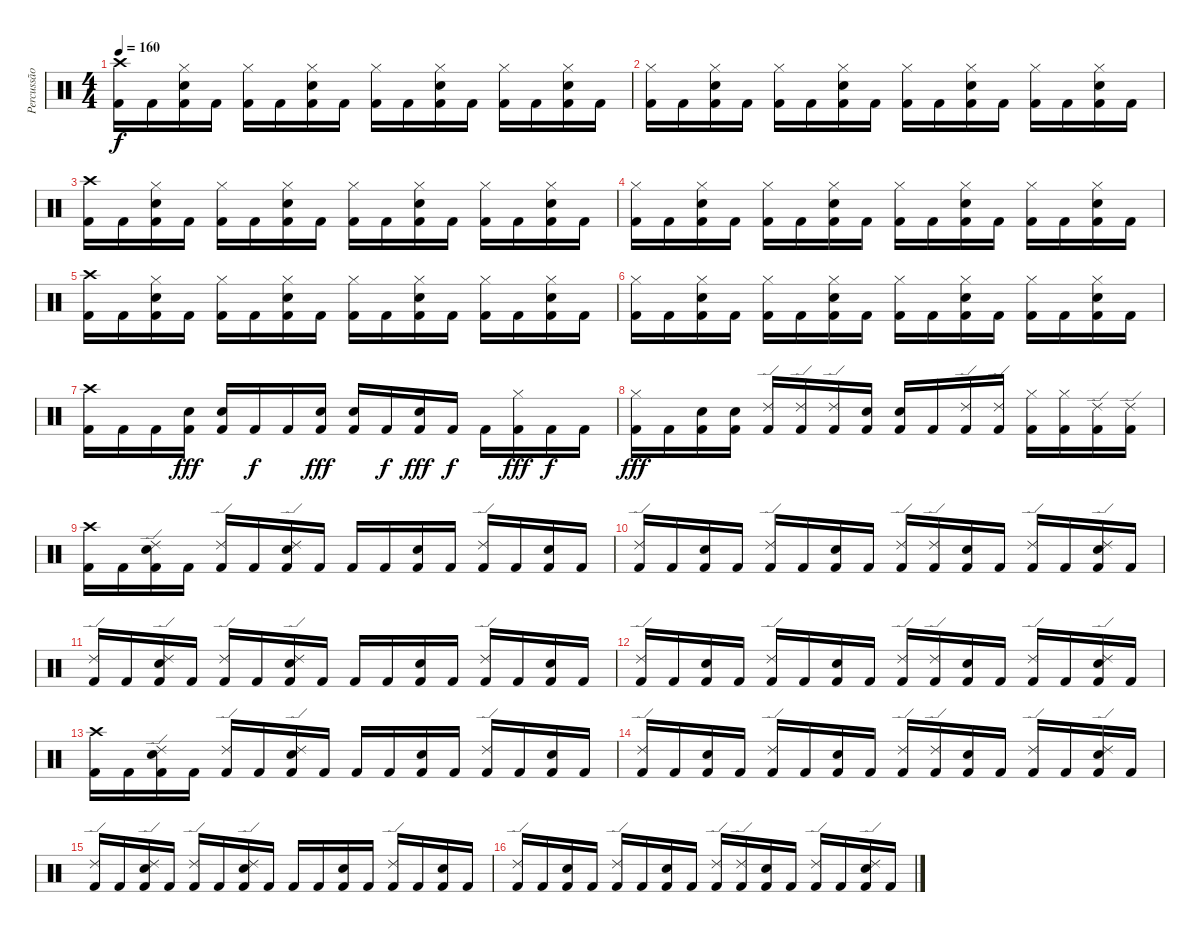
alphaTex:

\track ("Percussão" "Percussão") {instrument percussion}
\staff {score}
\articulation defaults
\ts (4 4)
\tempo 160
\clef neutral
\ks c
("Crash high (hit)" "Kick (hit) 2").16{dy f} "Kick (hit) 2".16 ("Hi-Hat (closed)" "Electric Snare (hit)" "Kick (hit) 2").16 "Kick (hit) 2".16 ("Hi-Hat (closed)" "Kick (hit) 2").16 "Kick (hit) 2".16 ("Hi-Hat (closed)" "Electric Snare (hit)" "Kick (hit) 2").16 "Kick (hit) 2".16 ("Hi-Hat (closed)" "Kick (hit) 2").16 "Kick (hit) 2".16 ("Hi-Hat (closed)" "Electric Snare (hit)" "Kick (hit) 2").16 "Kick (hit) 2".16 ("Hi-Hat (closed)" "Kick (hit) 2").16 "Kick (hit) 2".16 ("Hi-Hat (closed)" "Electric Snare (hit)" "Kick (hit) 2").16 "Kick (hit) 2".16 |
("Hi-Hat (closed)" "Kick (hit) 2").16 "Kick (hit) 2".16 ("Hi-Hat (closed)" "Electric Snare (hit)" "Kick (hit) 2").16 "Kick (hit) 2".16 ("Hi-Hat (closed)" "Kick (hit) 2").16 "Kick (hit) 2".16 ("Hi-Hat (closed)" "Electric Snare (hit)" "Kick (hit) 2").16 "Kick (hit) 2".16 ("Hi-Hat (closed)" "Kick (hit) 2").16 "Kick (hit) 2".16 ("Hi-Hat (closed)" "Electric Snare (hit)" "Kick (hit) 2").16 "Kick (hit) 2".16 ("Hi-Hat (closed)" "Kick (hit) 2").16 "Kick (hit) 2".16 ("Hi-Hat (closed)" "Electric Snare (hit)" "Kick (hit) 2").16 "Kick (hit) 2".16 |
("Crash high (hit)" "Kick (hit) 2").16 "Kick (hit) 2".16 ("Hi-Hat (closed)" "Electric Snare (hit)" "Kick (hit) 2").16 "Kick (hit) 2".16 ("Hi-Hat (closed)" "Kick (hit) 2").16 "Kick (hit) 2".16 ("Hi-Hat (closed)" "Electric Snare (hit)" "Kick (hit) 2").16 "Kick (hit) 2".16 ("Hi-Hat (closed)" "Kick (hit) 2").16 "Kick (hit) 2".16 ("Hi-Hat (closed)" "Electric Snare (hit)" "Kick (hit) 2").16 "Kick (hit) 2".16 ("Hi-Hat (closed)" "Kick (hit) 2").16 "Kick (hit) 2".16 ("Hi-Hat (closed)" "Electric Snare (hit)" "Kick (hit) 2").16 "Kick (hit) 2".16 |
("Hi-Hat (closed)" "Kick (hit) 2").16 "Kick (hit) 2".16 ("Hi-Hat (closed)" "Electric Snare (hit)" "Kick (hit) 2").16 "Kick (hit) 2".16 ("Hi-Hat (closed)" "Kick (hit) 2").16 "Kick (hit) 2".16 ("Hi-Hat (closed)" "Electric Snare (hit)" "Kick (hit) 2").16 "Kick (hit) 2".16 ("Hi-Hat (closed)" "Kick (hit) 2").16 "Kick (hit) 2".16 ("Hi-Hat (closed)" "Electric Snare (hit)" "Kick (hit) 2").16 "Kick (hit) 2".16 ("Hi-Hat (closed)" "Kick (hit) 2").16 "Kick (hit) 2".16 ("Hi-Hat (closed)" "Electric Snare (hit)" "Kick (hit) 2").16 "Kick (hit) 2".16 |
("Crash high (hit)" "Kick (hit) 2").16 "Kick (hit) 2".16 ("Hi-Hat (closed)" "Electric Snare (hit)" "Kick (hit) 2").16 "Kick (hit) 2".16 ("Hi-Hat (closed)" "Kick (hit) 2").16 "Kick (hit) 2".16 ("Hi-Hat (closed)" "Electric Snare (hit)" "Kick (hit) 2").16 "Kick (hit) 2".16 ("Hi-Hat (closed)" "Kick (hit) 2").16 "Kick (hit) 2".16 ("Hi-Hat (closed)" "Electric Snare (hit)" "Kick (hit) 2").16 "Kick (hit) 2".16 ("Hi-Hat (closed)" "Kick (hit) 2").16 "Kick (hit) 2".16 ("Hi-Hat (closed)" "Electric Snare (hit)" "Kick (hit) 2").16 "Kick (hit) 2".16 |
("Hi-Hat (closed)" "Kick (hit) 2").16 "Kick (hit) 2".16 ("Hi-Hat (closed)" "Electric Snare (hit)" "Kick (hit) 2").16 "Kick (hit) 2".16 ("Hi-Hat (closed)" "Kick (hit) 2").16 "Kick (hit) 2".16 ("Hi-Hat (closed)" "Electric Snare (hit)" "Kick (hit) 2").16 "Kick (hit) 2".16 ("Hi-Hat (closed)" "Kick (hit) 2").16 "Kick (hit) 2".16 ("Hi-Hat (closed)" "Electric Snare (hit)" "Kick (hit) 2").16 "Kick (hit) 2".16 ("Hi-Hat (closed)" "Kick (hit) 2").16 "Kick (hit) 2".16 ("Hi-Hat (closed)" "Electric Snare (hit)" "Kick (hit) 2").16 "Kick (hit) 2".16 |
("Crash high (hit)" "Kick (hit) 2").16 "Kick (hit) 2".16 "Kick (hit) 2".16 ("Electric Snare (hit)" "Kick (hit) 2").16{dy fff} ("Electric Snare (hit)" "Kick (hit) 2").16 "Kick (hit) 2".16{dy f} "Kick (hit) 2".16 ("Electric Snare (hit)" "Kick (hit) 2").16{dy fff} ("Electric Snare (hit)" "Kick (hit) 2").16 "Kick (hit) 2".16{dy f} ("Electric Snare (hit)" "Kick (hit) 2").16{dy fff} "Kick (hit) 2".16{dy f} "Kick (hit) 2".16 ("Hi-Hat (closed)" "Kick (hit) 2").16{dy fff} "Kick (hit) 2".16{dy f} "Kick (hit) 2".16 |
("Hi-Hat (closed)" "Kick (hit) 2").16{dy fff} "Kick (hit) 2".16 ("Electric Snare (hit)" "Kick (hit) 2").16 ("Electric Snare (hit)" "Kick (hit) 2").16 ("Ride (edge) 2" "Kick (hit) 2").16 ("Ride (edge) 2" "Kick (hit) 2").16 ("Ride (edge) 2" "Kick (hit) 2").16 ("Electric Snare (hit)" "Kick (hit) 2").16 ("Electric Snare (hit)" "Kick (hit) 2").16 "Kick (hit) 2".16 ("Ride (edge) 2" "Kick (hit) 2").16 ("Ride (edge) 2" "Kick (hit) 2").16 ("Hi-Hat (closed)" "Kick (hit) 2").16 ("Hi-Hat (closed)" "Kick (hit) 2").16 ("Ride (edge) 2" "Kick (hit) 2").16 ("Ride (edge) 2" "Kick (hit) 2").16 |
("Crash high (hit)" "Kick (hit) 2").16 "Kick (hit) 2".16 ("Ride (edge) 2" "Electric Snare (hit)" "Kick (hit) 2").16 "Kick (hit) 2".16 ("Ride (edge) 2" "Kick (hit) 2").16 "Kick (hit) 2".16 ("Ride (edge) 2" "Electric Snare (hit)" "Kick (hit) 2").16 "Kick (hit) 2".16 "Kick (hit) 2".16 "Kick (hit) 2".16 ("Electric Snare (hit)" "Kick (hit) 2").16 "Kick (hit) 2".16 ("Ride (edge) 2" "Kick (hit) 2").16 "Kick (hit) 2".16 ("Electric Snare (hit)" "Kick (hit) 2").16 "Kick (hit) 2".16 |
("Ride (edge) 2" "Kick (hit) 2").16 "Kick (hit) 2".16 ("Electric Snare (hit)" "Kick (hit) 2").16 "Kick (hit) 2".16 ("Ride (edge) 2" "Kick (hit) 2").16 "Kick (hit) 2".16 ("Electric Snare (hit)" "Kick (hit) 2").16 "Kick (hit) 2".16 ("Ride (edge) 2" "Kick (hit) 2").16 ("Ride (edge) 2" "Kick (hit) 2").16 ("Electric Snare (hit)" "Kick (hit) 2").16 "Kick (hit) 2".16 ("Ride (edge) 2" "Kick (hit) 2").16 "Kick (hit) 2".16 ("Ride (edge) 2" "Electric Snare (hit)" "Kick (hit) 2").16 "Kick (hit) 2".16 |
("Ride (edge) 2" "Kick (hit) 2").16 "Kick (hit) 2".16 ("Ride (edge) 2" "Electric Snare (hit)" "Kick (hit) 2").16 "Kick (hit) 2".16 ("Ride (edge) 2" "Kick (hit) 2").16 "Kick (hit) 2".16 ("Ride (edge) 2" "Electric Snare (hit)" "Kick (hit) 2").16 "Kick (hit) 2".16 "Kick (hit) 2".16 "Kick (hit) 2".16 ("Electric Snare (hit)" "Kick (hit) 2").16 "Kick (hit) 2".16 ("Ride (edge) 2" "Kick (hit) 2").16 "Kick (hit) 2".16 ("Electric Snare (hit)" "Kick (hit) 2").16 "Kick (hit) 2".16 |
("Ride (edge) 2" "Kick (hit) 2").16 "Kick (hit) 2".16 ("Electric Snare (hit)" "Kick (hit) 2").16 "Kick (hit) 2".16 ("Ride (edge) 2" "Kick (hit) 2").16 "Kick (hit) 2".16 ("Electric Snare (hit)" "Kick (hit) 2").16 "Kick (hit) 2".16 ("Ride (edge) 2" "Kick (hit) 2").16 ("Ride (edge) 2" "Kick (hit) 2").16 ("Electric Snare (hit)" "Kick (hit) 2").16 "Kick (hit) 2".16 ("Ride (edge) 2" "Kick (hit) 2").16 "Kick (hit) 2".16 ("Ride (edge) 2" "Electric Snare (hit)" "Kick (hit) 2").16 "Kick (hit) 2".16 |
("Crash high (hit)" "Kick (hit) 2").16 "Kick (hit) 2".16 ("Ride (edge) 2" "Electric Snare (hit)" "Kick (hit) 2").16 "Kick (hit) 2".16 ("Ride (edge) 2" "Kick (hit) 2").16 "Kick (hit) 2".16 ("Ride (edge) 2" "Electric Snare (hit)" "Kick (hit) 2").16 "Kick (hit) 2".16 "Kick (hit) 2".16 "Kick (hit) 2".16 ("Electric Snare (hit)" "Kick (hit) 2").16 "Kick (hit) 2".16 ("Ride (edge) 2" "Kick (hit) 2").16 "Kick (hit) 2".16 ("Electric Snare (hit)" "Kick (hit) 2").16 "Kick (hit) 2".16 |
("Ride (edge) 2" "Kick (hit) 2").16 "Kick (hit) 2".16 ("Electric Snare (hit)" "Kick (hit) 2").16 "Kick (hit) 2".16 ("Ride (edge) 2" "Kick (hit) 2").16 "Kick (hit) 2".16 ("Electric Snare (hit)" "Kick (hit) 2").16 "Kick (hit) 2".16 ("Ride (edge) 2" "Kick (hit) 2").16 ("Ride (edge) 2" "Kick (hit) 2").16 ("Electric Snare (hit)" "Kick (hit) 2").16 "Kick (hit) 2".16 ("Ride (edge) 2" "Kick (hit) 2").16 "Kick (hit) 2".16 ("Ride (edge) 2" "Electric Snare (hit)" "Kick (hit) 2").16 "Kick (hit) 2".16 |
("Ride (edge) 2" "Kick (hit) 2").16 "Kick (hit) 2".16 ("Ride (edge) 2" "Electric Snare (hit)" "Kick (hit) 2").16 "Kick (hit) 2".16 ("Ride (edge) 2" "Kick (hit) 2").16 "Kick (hit) 2".16 ("Ride (edge) 2" "Electric Snare (hit)" "Kick (hit) 2").16 "Kick (hit) 2".16 "Kick (hit) 2".16 "Kick (hit) 2".16 ("Electric Snare (hit)" "Kick (hit) 2").16 "Kick (hit) 2".16 ("Ride (edge) 2" "Kick (hit) 2").16 "Kick (hit) 2".16 ("Electric Snare (hit)" "Kick (hit) 2").16 "Kick (hit) 2".16 |
("Ride (edge) 2" "Kick (hit) 2").16 "Kick (hit) 2".16 ("Electric Snare (hit)" "Kick (hit) 2").16 "Kick (hit) 2".16 ("Ride (edge) 2" "Kick (hit) 2").16 "Kick (hit) 2".16 ("Electric Snare (hit)" "Kick (hit) 2").16 "Kick (hit) 2".16 ("Ride (edge) 2" "Kick (hit) 2").16 ("Ride (edge) 2" "Kick (hit) 2").16 ("Electric Snare (hit)" "Kick (hit) 2").16 "Kick (hit) 2".16 ("Ride (edge) 2" "Kick (hit) 2").16 "Kick (hit) 2".16 ("Ride (edge) 2" "Electric Snare (hit)" "Kick (hit) 2").16 "Kick (hit) 2".16
